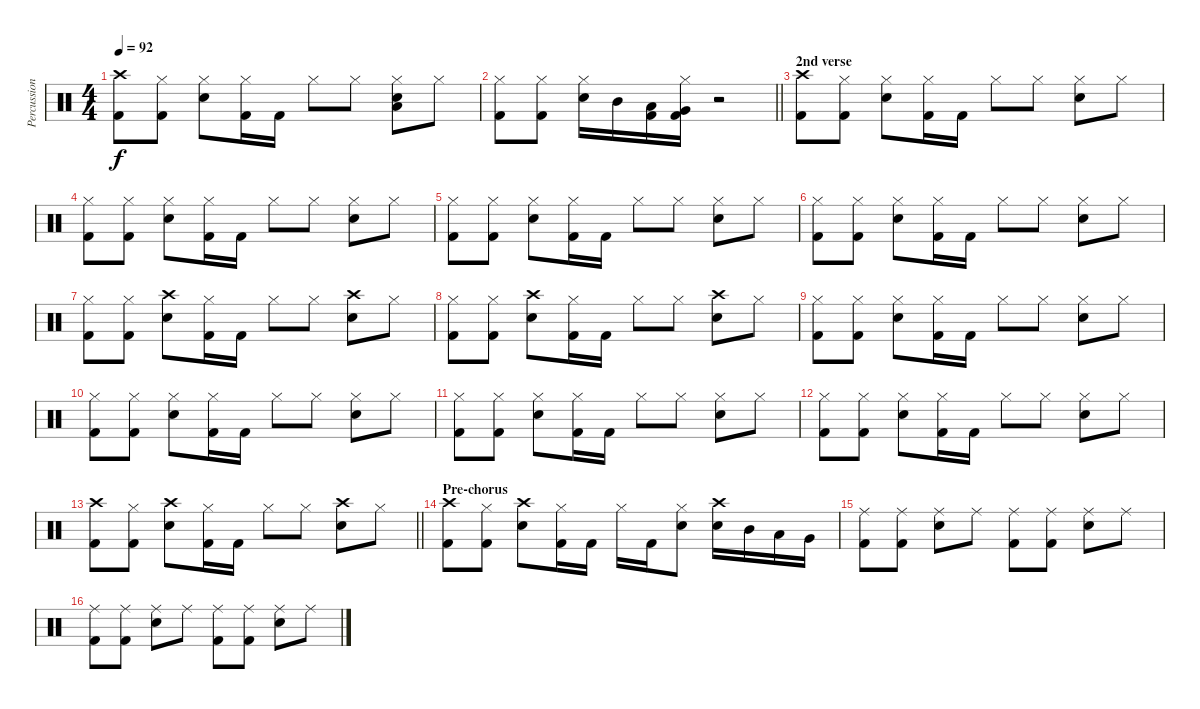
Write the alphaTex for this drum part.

\track ("Percussion" "Percussion") {instrument percussion}
\staff {score}
\articulation defaults
\ts (4 4)
\tempo 92
\clef neutral
\ks c
("Crash high (hit)" "Kick (hit) 2").8{dy f} ("Hi-Hat (closed)" "Kick (hit) 2").8 ("Hi-Hat (closed)" "Electric Snare (hit)").8 ("Hi-Hat (closed)" "Kick (hit) 2").16 "Kick (hit) 2".16 "Hi-Hat (closed)".8 "Hi-Hat (closed)".8 ("Hi-Hat (closed)" "Low Tom (hit)" "Electric Snare (hit)").8 "Hi-Hat (closed)".8 |
\barLineRight lightlight
("Hi-Hat (closed)" "Kick (hit) 2").8 ("Hi-Hat (closed)" "Kick (hit) 2").8 ("Hi-Hat (closed)" "Electric Snare (hit)").16 "Mid Tom (hit)".16 ("Low Tom (hit)" "Kick (hit) 2").16 ("Hi-Hat (closed)" "Very Low Tom (hit)" "Kick (hit) 2").16 r.2 |
\section ("" "2nd verse")
("Crash high (hit)" "Kick (hit) 2").8 ("Hi-Hat (closed)" "Kick (hit) 2").8 ("Hi-Hat (closed)" "Electric Snare (hit)").8 ("Hi-Hat (closed)" "Kick (hit) 2").16 "Kick (hit) 2".16 "Hi-Hat (closed)".8 "Hi-Hat (closed)".8 ("Hi-Hat (closed)" "Electric Snare (hit)").8 "Hi-Hat (closed)".8 |
("Hi-Hat (closed)" "Kick (hit) 2").8 ("Hi-Hat (closed)" "Kick (hit) 2").8 ("Hi-Hat (closed)" "Electric Snare (hit)").8 ("Hi-Hat (closed)" "Kick (hit) 2").16 "Kick (hit) 2".16 "Hi-Hat (closed)".8 "Hi-Hat (closed)".8 ("Hi-Hat (closed)" "Electric Snare (hit)").8 "Hi-Hat (closed)".8 |
("Hi-Hat (closed)" "Kick (hit) 2").8 ("Hi-Hat (closed)" "Kick (hit) 2").8 ("Hi-Hat (closed)" "Electric Snare (hit)").8 ("Hi-Hat (closed)" "Kick (hit) 2").16 "Kick (hit) 2".16 "Hi-Hat (closed)".8 "Hi-Hat (closed)".8 ("Hi-Hat (closed)" "Electric Snare (hit)").8 "Hi-Hat (closed)".8 |
("Hi-Hat (closed)" "Kick (hit) 2").8 ("Hi-Hat (closed)" "Kick (hit) 2").8 ("Hi-Hat (closed)" "Electric Snare (hit)").8 ("Hi-Hat (closed)" "Kick (hit) 2").16 "Kick (hit) 2".16 "Hi-Hat (closed)".8 "Hi-Hat (closed)".8 ("Hi-Hat (closed)" "Electric Snare (hit)").8 "Hi-Hat (closed)".8 |
("Hi-Hat (closed)" "Kick (hit) 2").8 ("Hi-Hat (closed)" "Kick (hit) 2").8 ("Crash high (hit)" "Electric Snare (hit)").8 ("Hi-Hat (closed)" "Kick (hit) 2").16 "Kick (hit) 2".16 "Hi-Hat (closed)".8 "Hi-Hat (closed)".8 ("Crash high (hit)" "Electric Snare (hit)").8 "Hi-Hat (closed)".8 |
("Hi-Hat (closed)" "Kick (hit) 2").8 ("Hi-Hat (closed)" "Kick (hit) 2").8 ("Crash high (hit)" "Electric Snare (hit)").8 ("Hi-Hat (closed)" "Kick (hit) 2").16 "Kick (hit) 2".16 "Hi-Hat (closed)".8 "Hi-Hat (closed)".8 ("Crash high (hit)" "Electric Snare (hit)").8 "Hi-Hat (closed)".8 |
("Hi-Hat (closed)" "Kick (hit) 2").8 ("Hi-Hat (closed)" "Kick (hit) 2").8 ("Hi-Hat (closed)" "Electric Snare (hit)").8 ("Hi-Hat (closed)" "Kick (hit) 2").16 "Kick (hit) 2".16 "Hi-Hat (closed)".8 "Hi-Hat (closed)".8 ("Hi-Hat (closed)" "Electric Snare (hit)").8 "Hi-Hat (closed)".8 |
("Hi-Hat (closed)" "Kick (hit) 2").8 ("Hi-Hat (closed)" "Kick (hit) 2").8 ("Hi-Hat (closed)" "Electric Snare (hit)").8 ("Hi-Hat (closed)" "Kick (hit) 2").16 "Kick (hit) 2".16 "Hi-Hat (closed)".8 "Hi-Hat (closed)".8 ("Hi-Hat (closed)" "Electric Snare (hit)").8 "Hi-Hat (closed)".8 |
("Hi-Hat (closed)" "Kick (hit) 2").8 ("Hi-Hat (closed)" "Kick (hit) 2").8 ("Hi-Hat (closed)" "Electric Snare (hit)").8 ("Hi-Hat (closed)" "Kick (hit) 2").16 "Kick (hit) 2".16 "Hi-Hat (closed)".8 "Hi-Hat (closed)".8 ("Hi-Hat (closed)" "Electric Snare (hit)").8 "Hi-Hat (closed)".8 |
("Hi-Hat (closed)" "Kick (hit) 2").8 ("Hi-Hat (closed)" "Kick (hit) 2").8 ("Hi-Hat (closed)" "Electric Snare (hit)").8 ("Hi-Hat (closed)" "Kick (hit) 2").16 "Kick (hit) 2".16 "Hi-Hat (closed)".8 "Hi-Hat (closed)".8 ("Hi-Hat (closed)" "Electric Snare (hit)").8 "Hi-Hat (closed)".8 |
\barLineRight lightlight
("Crash high (hit)" "Kick (hit) 2").8 ("Hi-Hat (closed)" "Kick (hit) 2").8 ("Crash high (hit)" "Electric Snare (hit)").8 ("Hi-Hat (closed)" "Kick (hit) 2").16 "Kick (hit) 2".16 "Hi-Hat (closed)".8 "Hi-Hat (closed)".8 ("Crash high (hit)" "Electric Snare (hit)").8 "Hi-Hat (closed)".8 |
\section ("" "Pre-chorus")
("Crash high (hit)" "Kick (hit) 2").8 ("Hi-Hat (closed)" "Kick (hit) 2").8 ("Crash high (hit)" "Electric Snare (hit)").8 ("Hi-Hat (closed)" "Kick (hit) 2").16 "Kick (hit) 2".16 "Hi-Hat (closed)".16 "Kick (hit) 2".16 ("Hi-Hat (closed)" "Electric Snare (hit)").8 ("Crash high (hit)" "Electric Snare (hit)").16 "Mid Tom (hit)".16 "Low Tom (hit)".16 "Very Low Tom (hit)".16 |
("Ride (middle)" "Kick (hit) 2").8 ("Ride (middle)" "Kick (hit) 2").8 ("Ride (middle)" "Electric Snare (hit)").8 "Ride (middle)".8 ("Ride (middle)" "Kick (hit) 2").8 ("Ride (middle)" "Kick (hit) 2").8 ("Ride (middle)" "Electric Snare (hit)").8 "Ride (middle)".8 |
("Ride (middle)" "Kick (hit) 2").8 ("Ride (middle)" "Kick (hit) 2").8 ("Ride (middle)" "Electric Snare (hit)").8 "Ride (middle)".8 ("Ride (middle)" "Kick (hit) 2").8 ("Ride (middle)" "Kick (hit) 2").8 ("Ride (middle)" "Electric Snare (hit)").8 "Ride (middle)".8
